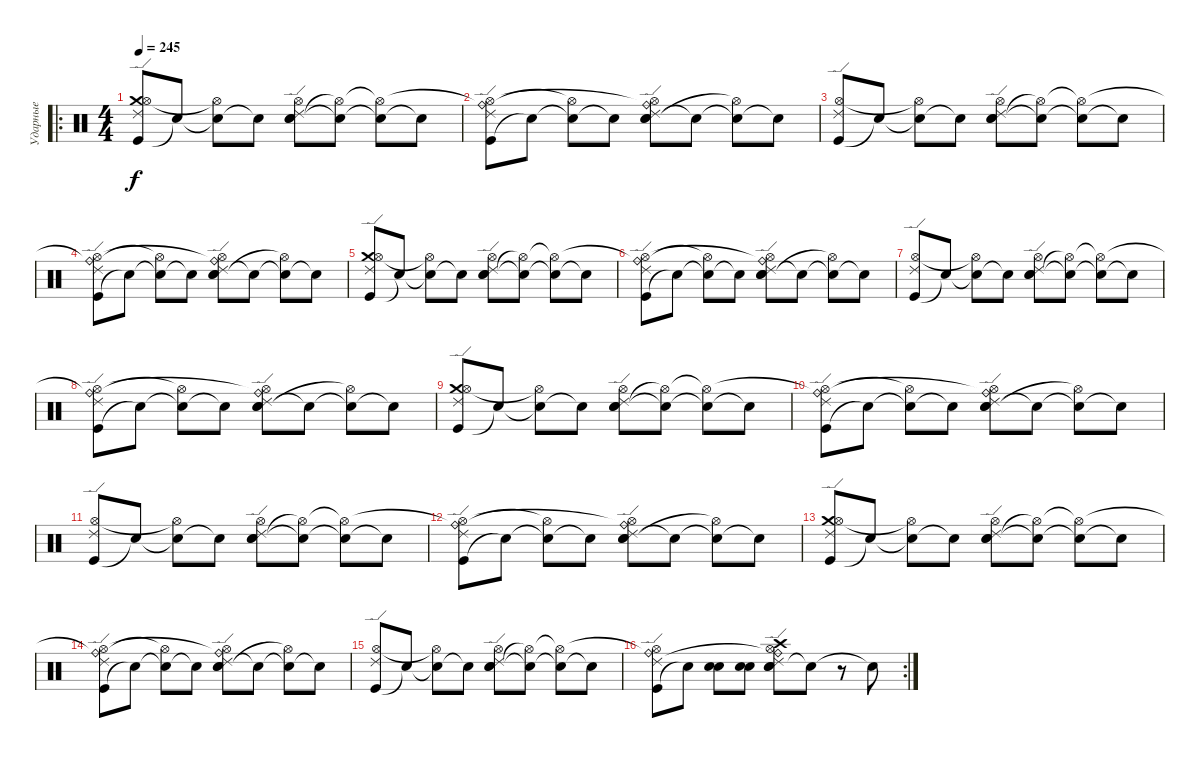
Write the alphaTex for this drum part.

\track ("Ударные" "Ударные") {instrument percussion}
\staff {score}
\articulation defaults
\ro
\ts (4 4)
\tempo 245
\clef neutral
\ks c
("Kick (hit)" "Crash medium (hit)" "Hi-Hat (open)" "Ride (edge) 2").8{dy f volume 13} "Snare (hit)"{t}.8 ("Electric Snare (hit)"{t} "Hi-Hat (open)"{t}).8 "Snare (hit)"{t}.8 ("Electric Snare (hit)" "Snare (hit) 2" "Hi-Hat (open)" "Ride (edge) 2").8 ("Electric Snare (hit)"{t} "Hi-Hat (open)"{t}).8 ("Snare (hit)"{t} "Hi-Hat (open)"{t}).8 "Snare (hit)"{t}.8 |
("Kick (hit)" "Ride (bell)"{t} "Hi-Hat (open)" "Ride (edge) 2").8 "Snare (hit)"{t}.8 ("Snare (hit)"{t} "Hi-Hat (open)"{t}).8 "Snare (hit)"{t}.8 ("Electric Snare (hit)" "Snare (hit) 2" "Ride (bell)"{t} "Hi-Hat (open)" "Ride (edge) 2").8 "Snare (hit)"{t}.8 ("Snare (hit)"{t} "Hi-Hat (open)"{t}).8 "Snare (hit)"{t}.8 |
("Kick (hit)" "Hi-Hat (open)" "Ride (edge) 2").8 "Snare (hit)"{t}.8 ("Electric Snare (hit)"{t} "Hi-Hat (open)"{t}).8 "Snare (hit)"{t}.8 ("Electric Snare (hit)" "Snare (hit) 2" "Hi-Hat (open)" "Ride (edge) 2").8 ("Electric Snare (hit)"{t} "Hi-Hat (open)"{t}).8 ("Snare (hit)"{t} "Hi-Hat (open)"{t}).8 "Snare (hit)"{t}.8 |
("Kick (hit)" "Ride (bell)"{t} "Hi-Hat (open)" "Ride (edge) 2").8 "Snare (hit)"{t}.8 ("Snare (hit)"{t} "Hi-Hat (open)"{t}).8 "Snare (hit)"{t}.8 ("Electric Snare (hit)" "Snare (hit) 2" "Ride (bell)"{t} "Hi-Hat (open)" "Ride (edge) 2").8 "Snare (hit)"{t}.8 ("Snare (hit)"{t} "Hi-Hat (open)"{t}).8 "Snare (hit)"{t}.8 |
("Kick (hit)" "Crash medium (hit)" "Hi-Hat (open)" "Ride (edge) 2").8 "Snare (hit)"{t}.8 ("Electric Snare (hit)"{t} "Hi-Hat (open)"{t}).8 "Snare (hit)"{t}.8 ("Electric Snare (hit)" "Snare (hit) 2" "Hi-Hat (open)" "Ride (edge) 2").8 ("Electric Snare (hit)"{t} "Hi-Hat (open)"{t}).8 ("Snare (hit)"{t} "Hi-Hat (open)"{t}).8 "Snare (hit)"{t}.8 |
("Kick (hit)" "Ride (bell)"{t} "Hi-Hat (open)" "Ride (edge) 2").8 "Snare (hit)"{t}.8 ("Snare (hit)"{t} "Hi-Hat (open)"{t}).8 "Snare (hit)"{t}.8 ("Electric Snare (hit)" "Snare (hit) 2" "Ride (bell)"{t} "Hi-Hat (open)" "Ride (edge) 2").8 "Snare (hit)"{t}.8 ("Snare (hit)"{t} "Hi-Hat (open)"{t}).8 "Snare (hit)"{t}.8 |
("Kick (hit)" "Hi-Hat (open)" "Ride (edge) 2").8 "Snare (hit)"{t}.8 ("Electric Snare (hit)"{t} "Hi-Hat (open)"{t}).8 "Snare (hit)"{t}.8 ("Electric Snare (hit)" "Snare (hit) 2" "Hi-Hat (open)" "Ride (edge) 2").8 ("Electric Snare (hit)"{t} "Hi-Hat (open)"{t}).8 ("Snare (hit)"{t} "Hi-Hat (open)"{t}).8 "Snare (hit)"{t}.8 |
("Kick (hit)" "Ride (bell)"{t} "Hi-Hat (open)" "Ride (edge) 2").8 "Snare (hit)"{t}.8 ("Snare (hit)"{t} "Hi-Hat (open)"{t}).8 "Snare (hit)"{t}.8 ("Electric Snare (hit)" "Snare (hit) 2" "Ride (bell)"{t} "Hi-Hat (open)" "Ride (edge) 2").8 "Snare (hit)"{t}.8 ("Snare (hit)"{t} "Hi-Hat (open)"{t}).8 "Snare (hit)"{t}.8 |
("Kick (hit)" "Crash medium (hit)" "Hi-Hat (open)" "Ride (edge) 2").8 "Snare (hit)"{t}.8 ("Electric Snare (hit)"{t} "Hi-Hat (open)"{t}).8 "Snare (hit)"{t}.8 ("Electric Snare (hit)" "Snare (hit) 2" "Hi-Hat (open)" "Ride (edge) 2").8 ("Electric Snare (hit)"{t} "Hi-Hat (open)"{t}).8 ("Snare (hit)"{t} "Hi-Hat (open)"{t}).8 "Snare (hit)"{t}.8 |
("Kick (hit)" "Ride (bell)"{t} "Hi-Hat (open)" "Ride (edge) 2").8 "Snare (hit)"{t}.8 ("Snare (hit)"{t} "Hi-Hat (open)"{t}).8 "Snare (hit)"{t}.8 ("Electric Snare (hit)" "Snare (hit) 2" "Ride (bell)"{t} "Hi-Hat (open)" "Ride (edge) 2").8 "Snare (hit)"{t}.8 ("Snare (hit)"{t} "Hi-Hat (open)"{t}).8 "Snare (hit)"{t}.8 |
("Kick (hit)" "Hi-Hat (open)" "Ride (edge) 2").8 "Snare (hit)"{t}.8 ("Electric Snare (hit)"{t} "Hi-Hat (open)"{t}).8 "Snare (hit)"{t}.8 ("Electric Snare (hit)" "Snare (hit) 2" "Hi-Hat (open)" "Ride (edge) 2").8 ("Electric Snare (hit)"{t} "Hi-Hat (open)"{t}).8 ("Snare (hit)"{t} "Hi-Hat (open)"{t}).8 "Snare (hit)"{t}.8 |
("Kick (hit)" "Ride (bell)"{t} "Hi-Hat (open)" "Ride (edge) 2").8 "Snare (hit)"{t}.8 ("Snare (hit)"{t} "Hi-Hat (open)"{t}).8 "Snare (hit)"{t}.8 ("Electric Snare (hit)" "Snare (hit) 2" "Ride (bell)"{t} "Hi-Hat (open)" "Ride (edge) 2").8 "Snare (hit)"{t}.8 ("Snare (hit)"{t} "Hi-Hat (open)"{t}).8 "Snare (hit)"{t}.8 |
("Kick (hit)" "Crash medium (hit)" "Hi-Hat (open)" "Ride (edge) 2").8 "Snare (hit)"{t}.8 ("Electric Snare (hit)"{t} "Hi-Hat (open)"{t}).8 "Snare (hit)"{t}.8 ("Electric Snare (hit)" "Snare (hit) 2" "Hi-Hat (open)" "Ride (edge) 2").8 ("Electric Snare (hit)"{t} "Hi-Hat (open)"{t}).8 ("Snare (hit)"{t} "Hi-Hat (open)"{t}).8 "Snare (hit)"{t}.8 |
("Kick (hit)" "Ride (bell)"{t} "Hi-Hat (open)" "Ride (edge) 2").8 "Snare (hit)"{t}.8 ("Snare (hit)"{t} "Hi-Hat (open)"{t}).8 "Snare (hit)"{t}.8 ("Electric Snare (hit)" "Snare (hit) 2" "Ride (bell)"{t} "Hi-Hat (open)" "Ride (edge) 2").8 "Snare (hit)"{t}.8 ("Snare (hit)"{t} "Hi-Hat (open)"{t}).8 "Snare (hit)"{t}.8 |
("Kick (hit)" "Hi-Hat (open)" "Ride (edge) 2").8 "Snare (hit)"{t}.8 ("Electric Snare (hit)"{t} "Hi-Hat (open)"{t}).8 "Snare (hit)"{t}.8 ("Electric Snare (hit)" "Snare (hit) 2" "Hi-Hat (open)" "Ride (edge) 2").8 ("Electric Snare (hit)"{t} "Hi-Hat (open)"{t}).8 ("Snare (hit)"{t} "Hi-Hat (open)"{t}).8 "Snare (hit)"{t}.8 |
\rc 2
("Kick (hit)" "Ride (bell)"{t} "Hi-Hat (open)" "Ride (edge) 2").8 "Snare (hit)"{t}.8 ("Electric Snare (hit)" "Snare (hit) 2").8 ("Electric Snare (hit)" "Snare (hit) 2").8 ("Electric Snare (hit)" "Snare (hit) 2" "Crash high (hit)" "Ride (bell)"{t} "Hi-Hat (open)" "Ride (edge) 2").8 "Electric Snare (hit)"{t}.8 r.8 "Snare (hit)"{t}.8
